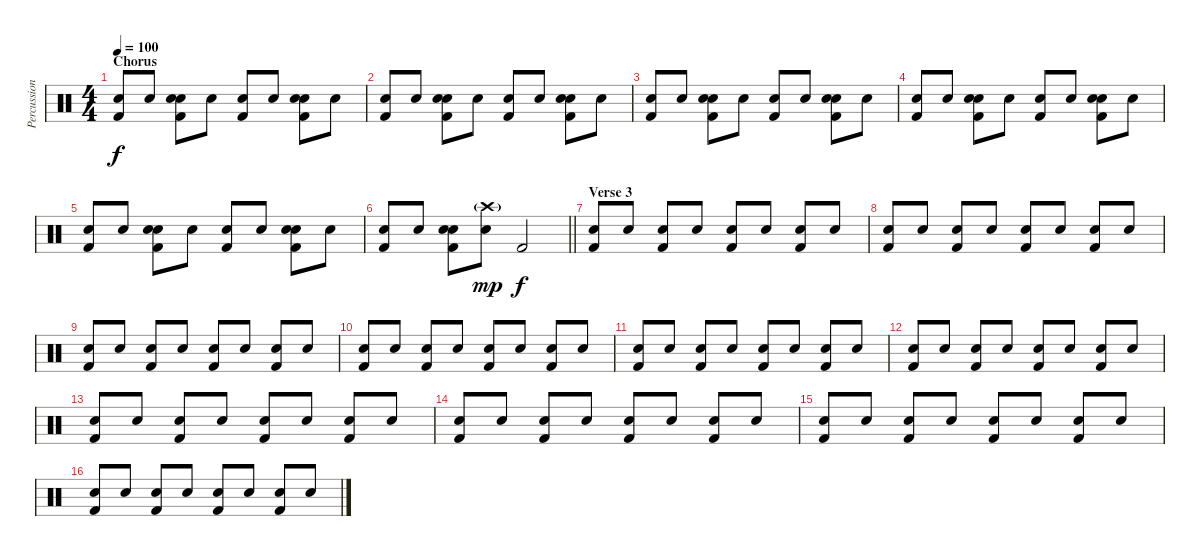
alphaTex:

\track ("Percussion" "Percussion") {instrument percussion}
\staff {score}
\articulation defaults
\ts (4 4)
\section ("" "Chorus")
\tempo 100
\clef neutral
\ks c
("Snare (hit) 2" "Kick (hit) 2").8{dy f} "Snare (hit) 2".8 ("Hand Clap (hit)" "Snare (hit) 2" "Kick (hit) 2").8 "Snare (hit) 2".8 ("Snare (hit) 2" "Kick (hit) 2").8 "Snare (hit) 2".8 ("Hand Clap (hit)" "Snare (hit) 2" "Kick (hit) 2").8 "Snare (hit) 2".8 |
("Snare (hit) 2" "Kick (hit) 2").8 "Snare (hit) 2".8 ("Hand Clap (hit)" "Snare (hit) 2" "Kick (hit) 2").8 "Snare (hit) 2".8 ("Snare (hit) 2" "Kick (hit) 2").8 "Snare (hit) 2".8 ("Hand Clap (hit)" "Snare (hit) 2" "Kick (hit) 2").8 "Snare (hit) 2".8 |
("Snare (hit) 2" "Kick (hit) 2").8 "Snare (hit) 2".8 ("Hand Clap (hit)" "Snare (hit) 2" "Kick (hit) 2").8 "Snare (hit) 2".8 ("Snare (hit) 2" "Kick (hit) 2").8 "Snare (hit) 2".8 ("Hand Clap (hit)" "Snare (hit) 2" "Kick (hit) 2").8 "Snare (hit) 2".8 |
("Snare (hit) 2" "Kick (hit) 2").8 "Snare (hit) 2".8 ("Hand Clap (hit)" "Snare (hit) 2" "Kick (hit) 2").8 "Snare (hit) 2".8 ("Snare (hit) 2" "Kick (hit) 2").8 "Snare (hit) 2".8 ("Hand Clap (hit)" "Snare (hit) 2" "Kick (hit) 2").8 "Snare (hit) 2".8 |
("Snare (hit) 2" "Kick (hit) 2").8 "Snare (hit) 2".8 ("Hand Clap (hit)" "Snare (hit) 2" "Kick (hit) 2").8 "Snare (hit) 2".8 ("Snare (hit) 2" "Kick (hit) 2").8 "Snare (hit) 2".8 ("Hand Clap (hit)" "Snare (hit) 2" "Kick (hit) 2").8 "Snare (hit) 2".8 |
\barLineRight lightlight
("Snare (hit) 2" "Kick (hit) 2").8 "Snare (hit) 2".8 ("Hand Clap (hit)" "Snare (hit) 2" "Kick (hit) 2").8 ("Crash high (hit)"{g} "Snare (hit) 2").8{dy mp} "Kick (hit) 2".2{dy f} |
\section ("" "Verse 3")
("Snare (hit) 2" "Kick (hit) 2").8 "Snare (hit) 2".8 ("Snare (hit) 2" "Kick (hit) 2").8 "Snare (hit) 2".8 ("Snare (hit) 2" "Kick (hit) 2").8 "Snare (hit) 2".8 ("Snare (hit) 2" "Kick (hit) 2").8 "Snare (hit) 2".8 |
("Snare (hit) 2" "Kick (hit) 2").8 "Snare (hit) 2".8 ("Snare (hit) 2" "Kick (hit) 2").8 "Snare (hit) 2".8 ("Snare (hit) 2" "Kick (hit) 2").8 "Snare (hit) 2".8 ("Snare (hit) 2" "Kick (hit) 2").8 "Snare (hit) 2".8 |
("Snare (hit) 2" "Kick (hit) 2").8 "Snare (hit) 2".8 ("Snare (hit) 2" "Kick (hit) 2").8 "Snare (hit) 2".8 ("Snare (hit) 2" "Kick (hit) 2").8 "Snare (hit) 2".8 ("Snare (hit) 2" "Kick (hit) 2").8 "Snare (hit) 2".8 |
("Snare (hit) 2" "Kick (hit) 2").8 "Snare (hit) 2".8 ("Snare (hit) 2" "Kick (hit) 2").8 "Snare (hit) 2".8 ("Snare (hit) 2" "Kick (hit) 2").8 "Snare (hit) 2".8 ("Snare (hit) 2" "Kick (hit) 2").8 "Snare (hit) 2".8 |
("Snare (hit) 2" "Kick (hit) 2").8 "Snare (hit) 2".8 ("Snare (hit) 2" "Kick (hit) 2").8 "Snare (hit) 2".8 ("Snare (hit) 2" "Kick (hit) 2").8 "Snare (hit) 2".8 ("Snare (hit) 2" "Kick (hit) 2").8 "Snare (hit) 2".8 |
("Snare (hit) 2" "Kick (hit) 2").8 "Snare (hit) 2".8 ("Snare (hit) 2" "Kick (hit) 2").8 "Snare (hit) 2".8 ("Snare (hit) 2" "Kick (hit) 2").8 "Snare (hit) 2".8 ("Snare (hit) 2" "Kick (hit) 2").8 "Snare (hit) 2".8 |
("Snare (hit) 2" "Kick (hit) 2").8 "Snare (hit) 2".8 ("Snare (hit) 2" "Kick (hit) 2").8 "Snare (hit) 2".8 ("Snare (hit) 2" "Kick (hit) 2").8 "Snare (hit) 2".8 ("Snare (hit) 2" "Kick (hit) 2").8 "Snare (hit) 2".8 |
("Snare (hit) 2" "Kick (hit) 2").8 "Snare (hit) 2".8 ("Snare (hit) 2" "Kick (hit) 2").8 "Snare (hit) 2".8 ("Snare (hit) 2" "Kick (hit) 2").8 "Snare (hit) 2".8 ("Snare (hit) 2" "Kick (hit) 2").8 "Snare (hit) 2".8 |
("Snare (hit) 2" "Kick (hit) 2").8 "Snare (hit) 2".8 ("Snare (hit) 2" "Kick (hit) 2").8 "Snare (hit) 2".8 ("Snare (hit) 2" "Kick (hit) 2").8 "Snare (hit) 2".8 ("Snare (hit) 2" "Kick (hit) 2").8 "Snare (hit) 2".8 |
("Snare (hit) 2" "Kick (hit) 2").8 "Snare (hit) 2".8 ("Snare (hit) 2" "Kick (hit) 2").8 "Snare (hit) 2".8 ("Snare (hit) 2" "Kick (hit) 2").8 "Snare (hit) 2".8 ("Snare (hit) 2" "Kick (hit) 2").8 "Snare (hit) 2".8
